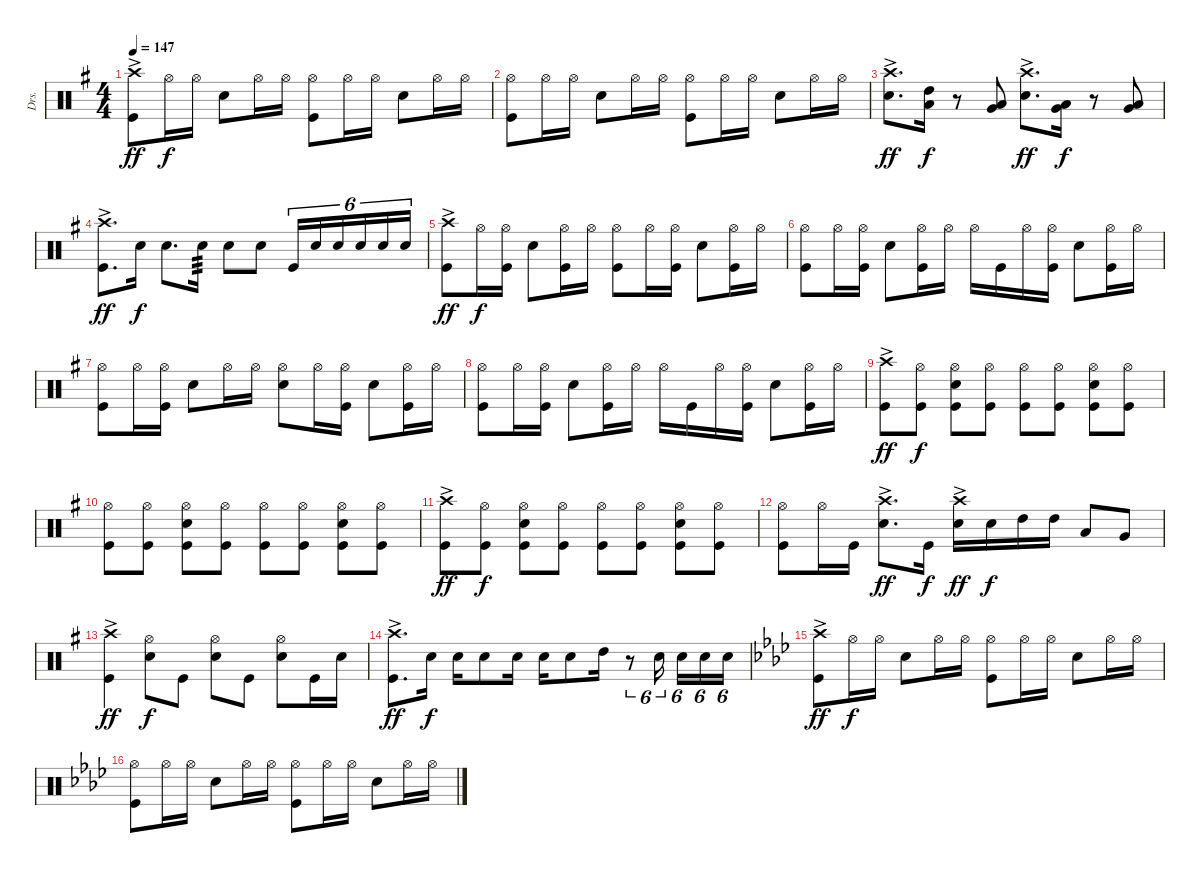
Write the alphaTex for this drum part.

\track ("Drs." "Drs.") {instrument percussion}
\staff {score}
\articulation defaults
\ts (4 4)
\tempo 147
\clef neutral
\ks eminor
("Crash high (hit)"{ac} "Kick (hit)").8{dy ff} "Hi-Hat (open)".16{dy f} "Hi-Hat (open)".16 "Snare (hit) 2".8 "Hi-Hat (open)".16 "Hi-Hat (open)".16 ("Hi-Hat (open)" "Kick (hit)").8 "Hi-Hat (open)".16 "Hi-Hat (open)".16 "Snare (hit) 2".8 "Hi-Hat (open)".16 "Hi-Hat (open)".16 |
("Hi-Hat (open)" "Kick (hit)").8 "Hi-Hat (open)".16 "Hi-Hat (open)".16 "Snare (hit) 2".8 "Hi-Hat (open)".16 "Hi-Hat (open)".16 ("Hi-Hat (open)" "Kick (hit)").8 "Hi-Hat (open)".16 "Hi-Hat (open)".16 "Snare (hit) 2".8 "Hi-Hat (open)".16 "Hi-Hat (open)".16 |
("Crash high (hit)"{ac} "Snare (hit) 2").8{d dy ff} ("High Tom (hit)" "Low Tom (hit)").16{dy f} r.8 ("Low Tom (hit)" "Very Low Tom (hit)").8 ("Crash high (hit)"{ac} "Snare (hit) 2").8{d dy ff} ("Low Tom (hit)" "Very Low Tom (hit)").16{dy f} r.8 ("Low Tom (hit)" "Very Low Tom (hit)").8 |
("Crash high (hit)"{ac} "Kick (hit)").8{d dy ff} "Snare (hit) 2".16{dy f} "Snare (hit) 2".8{d} "Snare (hit) 2".16{tp 3} "Snare (hit) 2".8 "Snare (hit) 2".8 "Kick (hit)".16{tu (6 4)} "Snare (hit) 2".16{tu (6 4)} "Snare (hit) 2".16{tu (6 4)} "Snare (hit) 2".16{tu (6 4)} "Snare (hit) 2".16{tu (6 4)} "Snare (hit) 2".16{tu (6 4)} |
("Crash high (hit)"{ac} "Kick (hit)").8{dy ff} "Hi-Hat (open)".16{dy f} ("Hi-Hat (open)" "Kick (hit)").16 "Snare (hit) 2".8 ("Hi-Hat (open)" "Kick (hit)").16 "Hi-Hat (open)".16 ("Hi-Hat (open)" "Kick (hit)").8 "Hi-Hat (open)".16 ("Hi-Hat (open)" "Kick (hit)").16 "Snare (hit) 2".8 ("Hi-Hat (open)" "Kick (hit)").16 "Hi-Hat (open)".16 |
("Hi-Hat (open)" "Kick (hit)").8 "Hi-Hat (open)".16 ("Hi-Hat (open)" "Kick (hit)").16 "Snare (hit) 2".8 ("Hi-Hat (open)" "Kick (hit)").16 "Hi-Hat (open)".16 "Hi-Hat (open)".16 "Kick (hit)".16 "Hi-Hat (open)".16 ("Hi-Hat (open)" "Kick (hit)").16 "Snare (hit) 2".8 ("Hi-Hat (open)" "Kick (hit)").16 "Hi-Hat (open)".16 |
("Hi-Hat (open)" "Kick (hit)").8 "Hi-Hat (open)".16 ("Hi-Hat (open)" "Kick (hit)").16 "Snare (hit) 2".8 "Hi-Hat (open)".16 "Hi-Hat (open)".16 ("Hi-Hat (open)" "Snare (hit)").8 "Hi-Hat (open)".16 ("Hi-Hat (open)" "Kick (hit)").16 "Snare (hit) 2".8 ("Hi-Hat (open)" "Kick (hit)").16 "Hi-Hat (open)".16 |
("Hi-Hat (open)" "Kick (hit)").8 "Hi-Hat (open)".16 ("Hi-Hat (open)" "Kick (hit)").16 "Snare (hit) 2".8 ("Hi-Hat (open)" "Kick (hit)").16 "Hi-Hat (open)".16 "Hi-Hat (open)".16 "Kick (hit)".16 "Hi-Hat (open)".16 ("Hi-Hat (open)" "Kick (hit)").16 "Snare (hit) 2".8 ("Hi-Hat (open)" "Kick (hit)").16 "Hi-Hat (open)".16 |
("Crash high (hit)"{ac} "Kick (hit)").8{dy ff} ("Hi-Hat (open)" "Kick (hit)").8{dy f} ("Hi-Hat (open)" "Snare (hit) 2" "Kick (hit)").8 ("Hi-Hat (open)" "Kick (hit)").8 ("Hi-Hat (open)" "Kick (hit)").8 ("Hi-Hat (open)" "Kick (hit)").8 ("Hi-Hat (open)" "Snare (hit) 2" "Kick (hit)").8 ("Hi-Hat (open)" "Kick (hit)").8 |
("Hi-Hat (open)" "Kick (hit)").8 ("Hi-Hat (open)" "Kick (hit)").8 ("Hi-Hat (open)" "Snare (hit) 2" "Kick (hit)").8 ("Hi-Hat (open)" "Kick (hit)").8 ("Hi-Hat (open)" "Kick (hit)").8 ("Hi-Hat (open)" "Kick (hit)").8 ("Hi-Hat (open)" "Snare (hit) 2" "Kick (hit)").8 ("Hi-Hat (open)" "Kick (hit)").8 |
("Crash high (hit)"{ac} "Kick (hit)").8{dy ff} ("Hi-Hat (open)" "Kick (hit)").8{dy f} ("Hi-Hat (open)" "Snare (hit) 2" "Kick (hit)").8 ("Hi-Hat (open)" "Kick (hit)").8 ("Hi-Hat (open)" "Kick (hit)").8 ("Hi-Hat (open)" "Kick (hit)").8 ("Hi-Hat (open)" "Snare (hit) 2" "Kick (hit)").8 ("Hi-Hat (open)" "Kick (hit)").8 |
("Hi-Hat (open)" "Kick (hit)").8 "Hi-Hat (open)".16 "Kick (hit)".16 ("Crash high (hit)"{ac} "Snare (hit) 2").8{d dy ff} "Kick (hit)".16{dy f} ("Crash high (hit)"{ac} "Snare (hit) 2").16{dy ff} "Snare (hit) 2".16{dy f} "High Tom (hit)".16 "High Tom (hit)".16 "Low Tom (hit)".8 "Very Low Tom (hit)".8 |
("Crash high (hit)"{ac} "Kick (hit)").4{dy ff} ("Hi-Hat (open)" "Snare (hit) 2").8{dy f} "Kick (hit)".8 ("Hi-Hat (open)" "Snare (hit) 2").8 "Kick (hit)".8 ("Hi-Hat (open)" "Snare (hit) 2").8 "Kick (hit)".16 "Snare (hit) 2".16 |
("Crash high (hit)"{ac} "Kick (hit)").8{d dy ff} "Snare (hit) 2".16{dy f} "Snare (hit) 2".16 "Snare (hit) 2".8 "Snare (hit) 2".16 "Snare (hit) 2".16 "Snare (hit) 2".8 "High Tom (hit)".16 r.8{tu (6 4)} "Snare (hit) 2".16{tu (6 4)} "Snare (hit) 2".16{tu (6 4)} "Snare (hit) 2".16{tu (6 4)} "Snare (hit) 2".16{tu (6 4)} |
\ks fminor
("Crash high (hit)"{ac} "Kick (hit)").8{dy ff} "Hi-Hat (open)".16{dy f} "Hi-Hat (open)".16 "Snare (hit) 2".8 "Hi-Hat (open)".16 "Hi-Hat (open)".16 ("Hi-Hat (open)" "Kick (hit)").8 "Hi-Hat (open)".16 "Hi-Hat (open)".16 "Snare (hit) 2".8 "Hi-Hat (open)".16 "Hi-Hat (open)".16 |
("Hi-Hat (open)" "Kick (hit)").8 "Hi-Hat (open)".16 "Hi-Hat (open)".16 "Snare (hit) 2".8 "Hi-Hat (open)".16 "Hi-Hat (open)".16 ("Hi-Hat (open)" "Kick (hit)").8 "Hi-Hat (open)".16 "Hi-Hat (open)".16 "Snare (hit) 2".8 "Hi-Hat (open)".16 "Hi-Hat (open)".16
